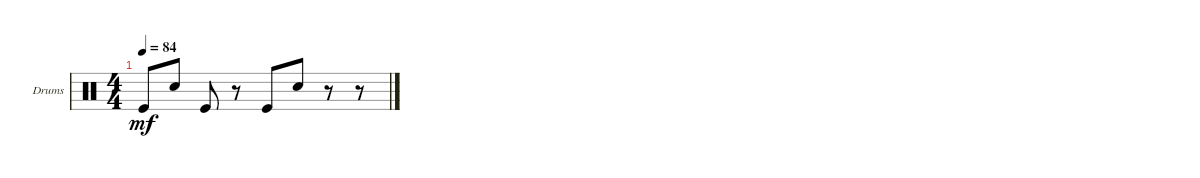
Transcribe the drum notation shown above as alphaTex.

\defaultSystemsLayout 4
\bracketExtendMode groupsimilarinstruments
\firstSystemTrackNameOrientation horizontal
\otherSystemsTrackNameOrientation horizontal
\track ("Drumkit" "Drums") {instrument percussion}
\staff {score}
\articulation defaults
\ts (4 4)
\tempo 84
\clef neutral
\ks c "Kick (hit)".8{dy mf} "Snare (hit) 2".8 "Kick (hit)".8
r.8 "Kick (hit)".8 "Snare (hit) 2".8 r.8 r.8
